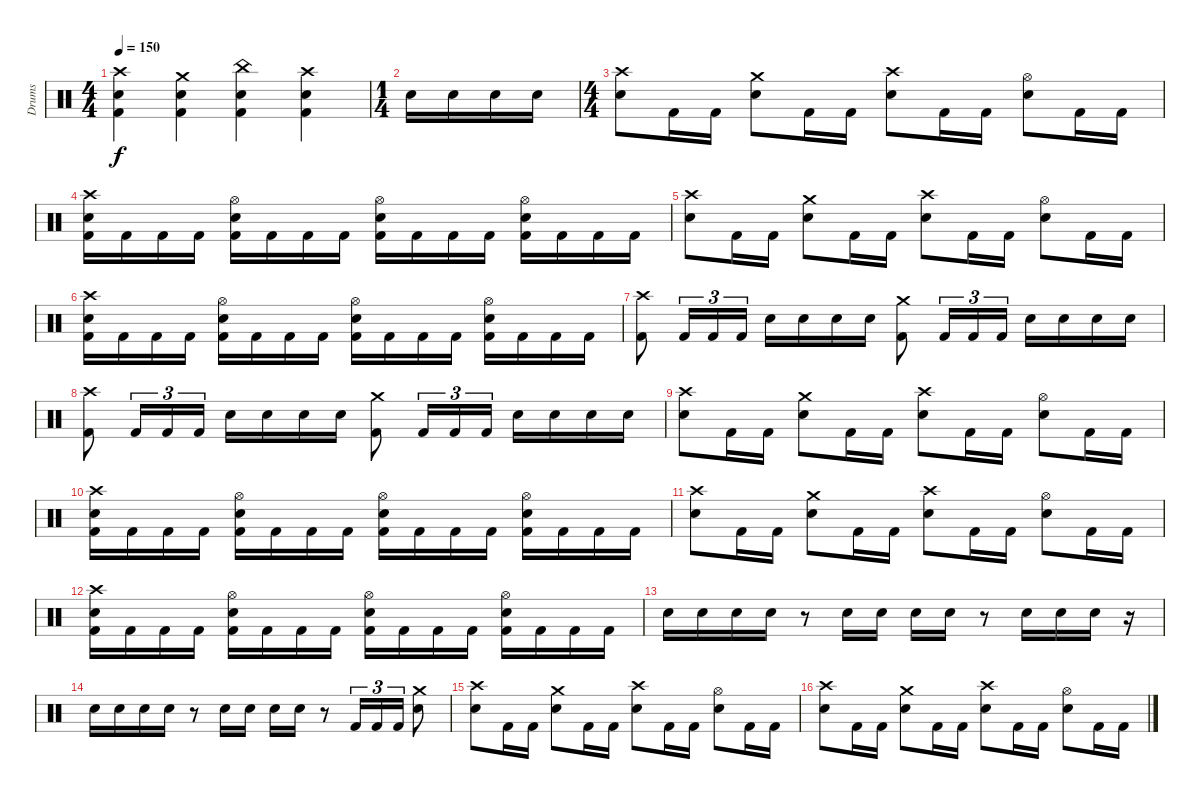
\track ("Drums" "Drums") {instrument percussion}
\staff {score}
\articulation defaults
\ts (4 4)
\tempo 150
\clef neutral
\ks c
("Crash high (hit)" "Snare (hit) 2" "Kick (hit) 2").4{dy f} ("Crash medium (hit)" "Snare (hit) 2" "Kick (hit) 2").4 ("China (hit)" "Snare (hit) 2" "Kick (hit) 2").4 ("Crash high (hit)" "Snare (hit) 2" "Kick (hit) 2").4 |
\ts (1 4)
"Snare (hit) 2".16 "Snare (hit) 2".16 "Snare (hit) 2".16 "Snare (hit) 2".16 |
\ts (4 4)
("Crash high (hit)" "Snare (hit) 2").8 "Kick (hit) 2".16 "Kick (hit) 2".16 ("Crash medium (hit)" "Snare (hit) 2").8 "Kick (hit) 2".16 "Kick (hit) 2".16 ("Crash high (hit)" "Snare (hit) 2").8 "Kick (hit) 2".16 "Kick (hit) 2".16 ("Hi-Hat (open)" "Snare (hit) 2").8 "Kick (hit) 2".16 "Kick (hit) 2".16 |
("Crash high (hit)" "Snare (hit) 2" "Kick (hit) 2").16 "Kick (hit) 2".16 "Kick (hit) 2".16 "Kick (hit) 2".16 ("Hi-Hat (open)" "Snare (hit) 2" "Kick (hit) 2").16 "Kick (hit) 2".16 "Kick (hit) 2".16 "Kick (hit) 2".16 ("Hi-Hat (open)" "Snare (hit) 2" "Kick (hit) 2").16 "Kick (hit) 2".16 "Kick (hit) 2".16 "Kick (hit) 2".16 ("Hi-Hat (open)" "Snare (hit) 2" "Kick (hit) 2").16 "Kick (hit) 2".16 "Kick (hit) 2".16 "Kick (hit) 2".16 |
("Crash high (hit)" "Snare (hit) 2").8 "Kick (hit) 2".16 "Kick (hit) 2".16 ("Crash medium (hit)" "Snare (hit) 2").8 "Kick (hit) 2".16 "Kick (hit) 2".16 ("Crash high (hit)" "Snare (hit) 2").8 "Kick (hit) 2".16 "Kick (hit) 2".16 ("Hi-Hat (open)" "Snare (hit) 2").8 "Kick (hit) 2".16 "Kick (hit) 2".16 |
("Crash high (hit)" "Snare (hit) 2" "Kick (hit) 2").16 "Kick (hit) 2".16 "Kick (hit) 2".16 "Kick (hit) 2".16 ("Hi-Hat (open)" "Snare (hit) 2" "Kick (hit) 2").16 "Kick (hit) 2".16 "Kick (hit) 2".16 "Kick (hit) 2".16 ("Hi-Hat (open)" "Snare (hit) 2" "Kick (hit) 2").16 "Kick (hit) 2".16 "Kick (hit) 2".16 "Kick (hit) 2".16 ("Hi-Hat (open)" "Snare (hit) 2" "Kick (hit) 2").16 "Kick (hit) 2".16 "Kick (hit) 2".16 "Kick (hit) 2".16 |
("Crash high (hit)" "Kick (hit) 2").8 "Kick (hit) 2".16{tu (3 2)} "Kick (hit) 2".16{tu (3 2)} "Kick (hit) 2".16{tu (3 2)} "Snare (hit) 2".16 "Snare (hit) 2".16 "Snare (hit) 2".16 "Snare (hit) 2".16 ("Crash medium (hit)" "Kick (hit) 2").8 "Kick (hit) 2".16{tu (3 2)} "Kick (hit) 2".16{tu (3 2)} "Kick (hit) 2".16{tu (3 2)} "Snare (hit) 2".16 "Snare (hit) 2".16 "Snare (hit) 2".16 "Snare (hit) 2".16 |
("Crash high (hit)" "Kick (hit) 2").8 "Kick (hit) 2".16{tu (3 2)} "Kick (hit) 2".16{tu (3 2)} "Kick (hit) 2".16{tu (3 2)} "Snare (hit) 2".16 "Snare (hit) 2".16 "Snare (hit) 2".16 "Snare (hit) 2".16 ("Crash medium (hit)" "Kick (hit) 2").8 "Kick (hit) 2".16{tu (3 2)} "Kick (hit) 2".16{tu (3 2)} "Kick (hit) 2".16{tu (3 2)} "Snare (hit) 2".16 "Snare (hit) 2".16 "Snare (hit) 2".16 "Snare (hit) 2".16 |
("Crash high (hit)" "Snare (hit) 2").8 "Kick (hit) 2".16 "Kick (hit) 2".16 ("Crash medium (hit)" "Snare (hit) 2").8 "Kick (hit) 2".16 "Kick (hit) 2".16 ("Crash high (hit)" "Snare (hit) 2").8 "Kick (hit) 2".16 "Kick (hit) 2".16 ("Hi-Hat (open)" "Snare (hit) 2").8 "Kick (hit) 2".16 "Kick (hit) 2".16 |
("Crash high (hit)" "Snare (hit) 2" "Kick (hit) 2").16 "Kick (hit) 2".16 "Kick (hit) 2".16 "Kick (hit) 2".16 ("Hi-Hat (open)" "Snare (hit) 2" "Kick (hit) 2").16 "Kick (hit) 2".16 "Kick (hit) 2".16 "Kick (hit) 2".16 ("Hi-Hat (open)" "Snare (hit) 2" "Kick (hit) 2").16 "Kick (hit) 2".16 "Kick (hit) 2".16 "Kick (hit) 2".16 ("Hi-Hat (open)" "Snare (hit) 2" "Kick (hit) 2").16 "Kick (hit) 2".16 "Kick (hit) 2".16 "Kick (hit) 2".16 |
("Crash high (hit)" "Snare (hit) 2").8 "Kick (hit) 2".16 "Kick (hit) 2".16 ("Crash medium (hit)" "Snare (hit) 2").8 "Kick (hit) 2".16 "Kick (hit) 2".16 ("Crash high (hit)" "Snare (hit) 2").8 "Kick (hit) 2".16 "Kick (hit) 2".16 ("Hi-Hat (open)" "Snare (hit) 2").8 "Kick (hit) 2".16 "Kick (hit) 2".16 |
("Crash high (hit)" "Snare (hit) 2" "Kick (hit) 2").16 "Kick (hit) 2".16 "Kick (hit) 2".16 "Kick (hit) 2".16 ("Hi-Hat (open)" "Snare (hit) 2" "Kick (hit) 2").16 "Kick (hit) 2".16 "Kick (hit) 2".16 "Kick (hit) 2".16 ("Hi-Hat (open)" "Snare (hit) 2" "Kick (hit) 2").16 "Kick (hit) 2".16 "Kick (hit) 2".16 "Kick (hit) 2".16 ("Hi-Hat (open)" "Snare (hit) 2" "Kick (hit) 2").16 "Kick (hit) 2".16 "Kick (hit) 2".16 "Kick (hit) 2".16 |
"Snare (hit) 2".16 "Snare (hit) 2".16 "Snare (hit) 2".16 "Snare (hit) 2".16 r.8 "Snare (hit) 2".16 "Snare (hit) 2".16 "Snare (hit) 2".16 "Snare (hit) 2".16 r.8 "Snare (hit) 2".16 "Snare (hit) 2".16 "Snare (hit) 2".16 r.16 |
"Snare (hit) 2".16 "Snare (hit) 2".16 "Snare (hit) 2".16 "Snare (hit) 2".16 r.8 "Snare (hit) 2".16 "Snare (hit) 2".16 "Snare (hit) 2".16 "Snare (hit) 2".16 r.8 "Kick (hit) 2".16{tu (3 2)} "Kick (hit) 2".16{tu (3 2)} "Kick (hit) 2".16{tu (3 2)} ("Crash medium (hit)" "Snare (hit) 2").8 |
("Crash high (hit)" "Snare (hit) 2").8 "Kick (hit) 2".16 "Kick (hit) 2".16 ("Crash medium (hit)" "Snare (hit) 2").8 "Kick (hit) 2".16 "Kick (hit) 2".16 ("Crash high (hit)" "Snare (hit) 2").8 "Kick (hit) 2".16 "Kick (hit) 2".16 ("Hi-Hat (open)" "Snare (hit) 2").8 "Kick (hit) 2".16 "Kick (hit) 2".16 |
("Crash high (hit)" "Snare (hit) 2").8 "Kick (hit) 2".16 "Kick (hit) 2".16 ("Crash medium (hit)" "Snare (hit) 2").8 "Kick (hit) 2".16 "Kick (hit) 2".16 ("Crash high (hit)" "Snare (hit) 2").8 "Kick (hit) 2".16 "Kick (hit) 2".16 ("Hi-Hat (open)" "Snare (hit) 2").8 "Kick (hit) 2".16 "Kick (hit) 2".16
